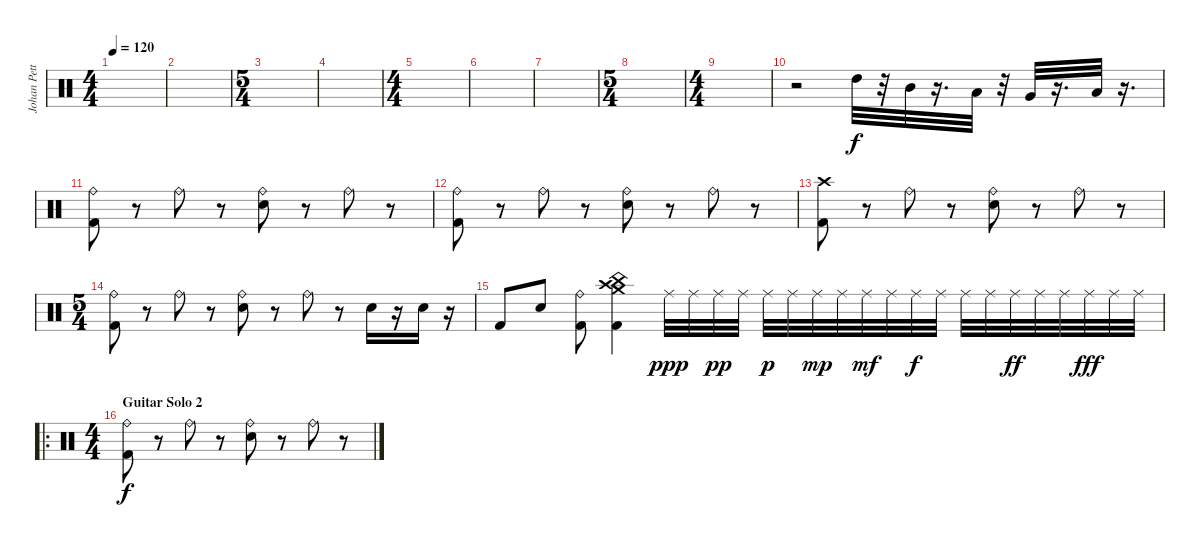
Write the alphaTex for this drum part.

\track ("Johan Petterson" "Johan Pett") {instrument percussion}
\staff {score}
\articulation defaults
\ts (4 4)
\tempo 120
\clef neutral
\ks c
|
|
\ts (5 4)
|
|
\ts (4 4)
|
|
|
\ts (5 4)
|
\ts (4 4)
|
r.2 "High Tom (hit)".32{dy f} r.32 "Mid Tom (hit)".32 r.16{d} "Low Tom (hit)".32 r.32 "Very Low Tom (hit)".32 r.16{d} "Low Floor Tom (hit)".32 r.16{d} |
("Ride (bell)" "Kick (hit) 2").8 r.8 "Ride (bell)".8 r.8 ("Ride (bell)" "Snare (hit) 2").8 r.8 "Ride (bell)".8 r.8 |
("Ride (bell)" "Kick (hit) 2").8 r.8 "Ride (bell)".8 r.8 ("Ride (bell)" "Snare (hit) 2").8 r.8 "Ride (bell)".8 r.8 |
("Crash high (hit)" "Kick (hit) 2").8 r.8 "Ride (bell)".8 r.8 ("Ride (bell)" "Snare (hit) 2").8 r.8 "Ride (bell)".8 r.8 |
\ts (5 4)
("Ride (bell)" "Kick (hit) 2").8 r.8 "Ride (bell)".8 r.8 ("Ride (bell)" "Snare (hit) 2").8 r.8 "Ride (bell)".8 r.8 "Snare (hit) 2".16 r.16 "Snare (hit) 2".16 r.16 |
"Kick (hit) 2".8 "Snare (hit) 2".8 ("Ride (bell)" "Kick (hit) 2").8 ("Crash high (hit)" "Crash medium (hit)" "China (hit)" "Kick (hit) 2").4 "Ride (middle)".32{dy ppp} "Ride (middle)".32 "Ride (middle)".32{dy pp} "Ride (middle)".32 "Ride (middle)".32{dy p} "Ride (middle)".32 "Ride (middle)".32{dy mp} "Ride (middle)".32 "Ride (middle)".32{dy mf} "Ride (middle)".32 "Ride (middle)".32{dy f} "Ride (middle)".32 "Ride (middle)".32 "Ride (middle)".32 "Ride (middle)".32{dy ff} "Ride (middle)".32 "Ride (middle)".32 "Ride (middle)".32{dy fff} "Ride (middle)".32 "Ride (middle)".32 |
\ro
\ts (4 4)
\section ("" "Guitar Solo 2")
("Ride (bell)" "Kick (hit) 2").8{dy f} r.8 "Ride (bell)".8 r.8 ("Ride (bell)" "Snare (hit) 2").8 r.8 "Ride (bell)".8 r.8
